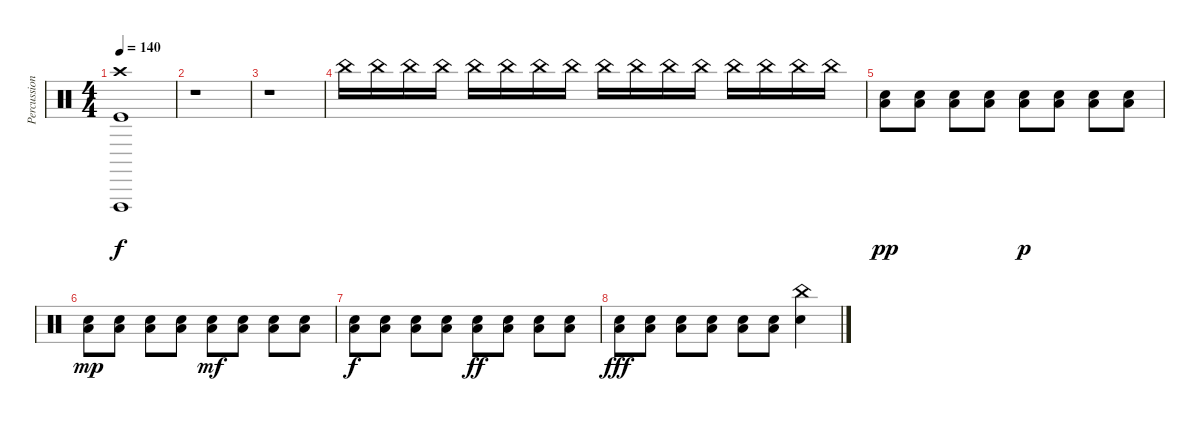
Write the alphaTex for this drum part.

\track ("Percussion" "Percussion") {instrument percussion}
\staff {score}
\articulation defaults
\ts (4 4)
\tempo 140
\clef neutral
\ks c
("Crash high (hit)" "Vibraslap (hit)" "Kick (hit)").1{dy f} |
r.1 |
r.1 |
"China (hit)".16 "China (hit)".16 "China (hit)".16 "China (hit)".16 "China (hit)".16 "China (hit)".16 "China (hit)".16 "China (hit)".16 "China (hit)".16 "China (hit)".16 "China (hit)".16 "China (hit)".16 "China (hit)".16 "China (hit)".16 "China (hit)".16 "China (hit)".16 |
("Low Tom (hit)" "Snare (hit) 2").8{dy pp} ("Low Tom (hit)" "Snare (hit) 2").8 ("Low Tom (hit)" "Snare (hit) 2").8 ("Low Tom (hit)" "Snare (hit) 2").8 ("Low Tom (hit)" "Snare (hit) 2").8{dy p} ("Low Tom (hit)" "Snare (hit) 2").8 ("Low Tom (hit)" "Snare (hit) 2").8 ("Low Tom (hit)" "Snare (hit) 2").8 |
("Low Tom (hit)" "Snare (hit) 2").8{dy mp} ("Low Tom (hit)" "Snare (hit) 2").8 ("Low Tom (hit)" "Snare (hit) 2").8 ("Low Tom (hit)" "Snare (hit) 2").8 ("Low Tom (hit)" "Snare (hit) 2").8{dy mf} ("Low Tom (hit)" "Snare (hit) 2").8 ("Low Tom (hit)" "Snare (hit) 2").8 ("Low Tom (hit)" "Snare (hit) 2").8 |
("Low Tom (hit)" "Snare (hit) 2").8{dy f} ("Low Tom (hit)" "Snare (hit) 2").8 ("Low Tom (hit)" "Snare (hit) 2").8 ("Low Tom (hit)" "Snare (hit) 2").8 ("Low Tom (hit)" "Snare (hit) 2").8{dy ff} ("Low Tom (hit)" "Snare (hit) 2").8 ("Low Tom (hit)" "Snare (hit) 2").8 ("Low Tom (hit)" "Snare (hit) 2").8 |
("Low Tom (hit)" "Snare (hit) 2").8{dy fff} ("Low Tom (hit)" "Snare (hit) 2").8 ("Low Tom (hit)" "Snare (hit) 2").8 ("Low Tom (hit)" "Snare (hit) 2").8 ("Low Tom (hit)" "Snare (hit) 2").8 ("Low Tom (hit)" "Snare (hit) 2").8 ("China (hit)" "Snare (hit) 2").4
